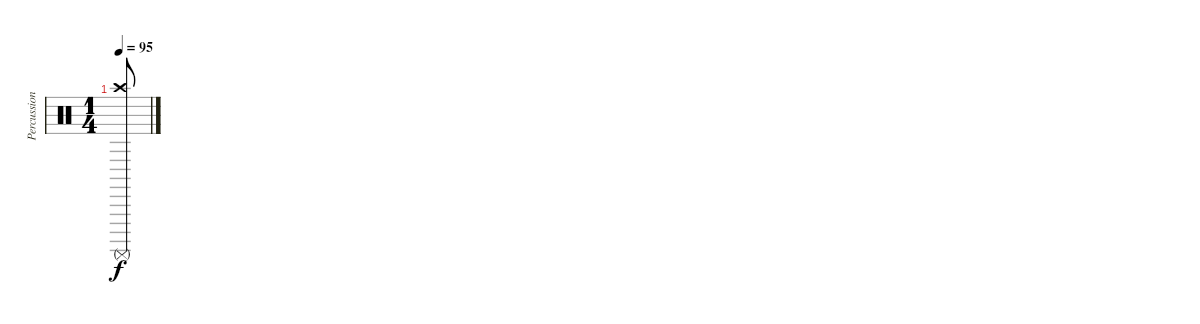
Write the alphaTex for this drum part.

\track ("Percussion" "Percussion") {instrument percussion}
\staff {score}
\articulation defaults
\ts (1 4)
\tempo 95
\clef neutral
\ks c
("Surdo (mute)" "Crash high (hit)").8{dy f}
